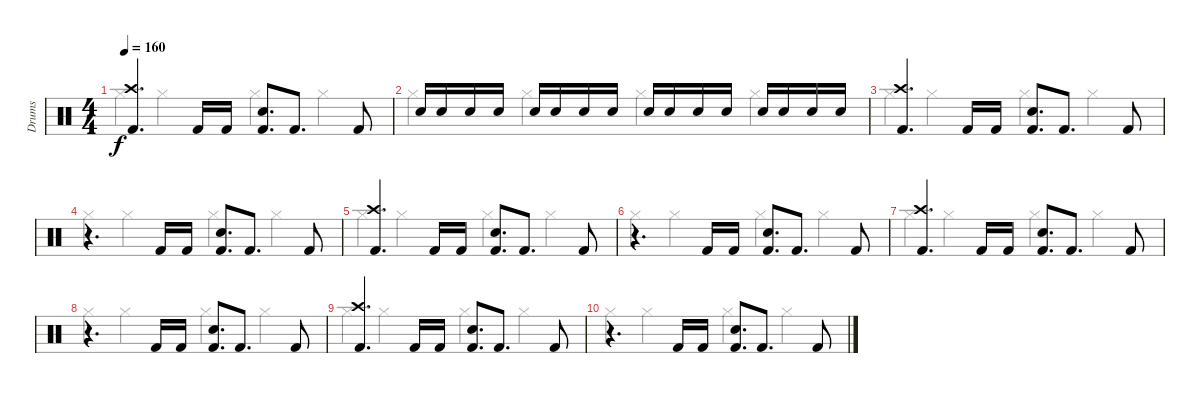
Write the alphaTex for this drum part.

\track ("Drums" "Drums") {instrument percussion}
\staff {score}
\articulation defaults
\voice
\ts (4 4)
\tempo 160
\clef neutral
\ks c
("Crash high (hit)" "Kick (hit) 2").4{d dy f} "Kick (hit) 2".16 "Kick (hit) 2".16 ("Snare (hit) 2" "Kick (hit) 2").8{d} "Kick (hit) 2".8{d} "Kick (hit) 2".8 |
"Snare (hit) 2".16 "Snare (hit) 2".16 "Snare (hit) 2".16 "Snare (hit) 2".16 "Snare (hit) 2".16 "Snare (hit) 2".16 "Snare (hit) 2".16 "Snare (hit) 2".16 "Snare (hit) 2".16 "Snare (hit) 2".16 "Snare (hit) 2".16 "Snare (hit) 2".16 "Snare (hit) 2".16 "Snare (hit) 2".16 "Snare (hit) 2".16 "Snare (hit) 2".16 |
("Crash high (hit)" "Kick (hit) 2").4{d} "Kick (hit) 2".16 "Kick (hit) 2".16 ("Snare (hit) 2" "Kick (hit) 2").8{d} "Kick (hit) 2".8{d} "Kick (hit) 2".8 |
r.4{d} "Kick (hit) 2".16 "Kick (hit) 2".16 ("Snare (hit) 2" "Kick (hit) 2").8{d} "Kick (hit) 2".8{d} "Kick (hit) 2".8 |
("Crash high (hit)" "Kick (hit) 2").4{d} "Kick (hit) 2".16 "Kick (hit) 2".16 ("Snare (hit) 2" "Kick (hit) 2").8{d} "Kick (hit) 2".8{d} "Kick (hit) 2".8 |
r.4{d} "Kick (hit) 2".16 "Kick (hit) 2".16 ("Snare (hit) 2" "Kick (hit) 2").8{d} "Kick (hit) 2".8{d} "Kick (hit) 2".8 |
("Crash high (hit)" "Kick (hit) 2").4{d} "Kick (hit) 2".16 "Kick (hit) 2".16 ("Snare (hit) 2" "Kick (hit) 2").8{d} "Kick (hit) 2".8{d} "Kick (hit) 2".8 |
r.4{d} "Kick (hit) 2".16 "Kick (hit) 2".16 ("Snare (hit) 2" "Kick (hit) 2").8{d} "Kick (hit) 2".8{d} "Kick (hit) 2".8 |
("Crash high (hit)" "Kick (hit) 2").4{d} "Kick (hit) 2".16 "Kick (hit) 2".16 ("Snare (hit) 2" "Kick (hit) 2").8{d} "Kick (hit) 2".8{d} "Kick (hit) 2".8 |
r.4{d} "Kick (hit) 2".16 "Kick (hit) 2".16 ("Snare (hit) 2" "Kick (hit) 2").8{d} "Kick (hit) 2".8{d} "Kick (hit) 2".8 |
|
|
|
|
|
\voice
\clef neutral
\ottava regular
\simile none
\ks c "Hi-Hat (closed)".4{dy f} "Hi-Hat (closed)".4 "Hi-Hat (closed)".4 "Hi-Hat (closed)".4
|
"Hi-Hat (closed)".4 "Hi-Hat (closed)".4 "Hi-Hat (closed)".4 "Hi-Hat (closed)".4 |
"Hi-Hat (closed)".4 "Hi-Hat (closed)".4 "Hi-Hat (closed)".4 "Hi-Hat (closed)".4 |
"Hi-Hat (closed)".4 "Hi-Hat (closed)".4 "Hi-Hat (closed)".4 "Hi-Hat (closed)".4 |
"Hi-Hat (closed)".4 "Hi-Hat (closed)".4 "Hi-Hat (closed)".4 "Hi-Hat (closed)".4 |
"Hi-Hat (closed)".4 "Hi-Hat (closed)".4 "Hi-Hat (closed)".4 "Hi-Hat (closed)".4 |
"Hi-Hat (closed)".4 "Hi-Hat (closed)".4 "Hi-Hat (closed)".4 "Hi-Hat (closed)".4 |
"Hi-Hat (closed)".4 "Hi-Hat (closed)".4 "Hi-Hat (closed)".4 "Hi-Hat (closed)".4 |
"Hi-Hat (closed)".4 "Hi-Hat (closed)".4 "Hi-Hat (closed)".4 "Hi-Hat (closed)".4 |
"Hi-Hat (closed)".4 "Hi-Hat (closed)".4 "Hi-Hat (closed)".4 "Hi-Hat (closed)".4 |
|
|
|
|
|
